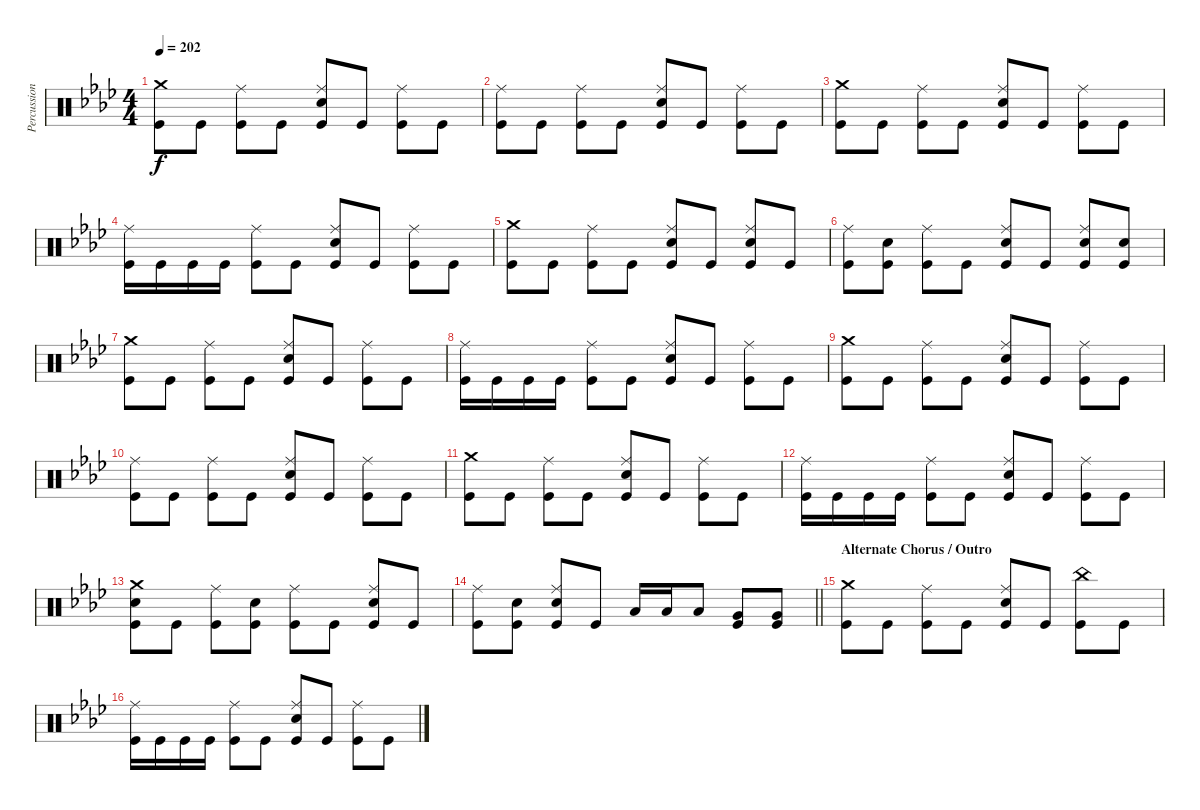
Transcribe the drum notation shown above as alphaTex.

\track ("Percussion" "Percussion") {instrument percussion}
\staff {score}
\articulation defaults
\ts (4 4)
\tempo 202
\clef neutral
\ks ab
("Crash medium (hit)" "Kick (hit)").8{dy f} "Kick (hit)".8 ("Ride (middle)" "Kick (hit)").8 "Kick (hit)".8 ("Ride (middle)" "Electric Snare (hit)" "Kick (hit)").8 "Kick (hit)".8 ("Ride (middle)" "Kick (hit)").8 "Kick (hit)".8 |
("Ride (middle)" "Kick (hit)").8 "Kick (hit)".8 ("Ride (middle)" "Kick (hit)").8 "Kick (hit)".8 ("Ride (middle)" "Electric Snare (hit)" "Kick (hit)").8 "Kick (hit)".8 ("Ride (middle)" "Kick (hit)").8 "Kick (hit)".8 |
("Crash medium (hit)" "Kick (hit)").8 "Kick (hit)".8 ("Ride (middle)" "Kick (hit)").8 "Kick (hit)".8 ("Ride (middle)" "Electric Snare (hit)" "Kick (hit)").8 "Kick (hit)".8 ("Ride (middle)" "Kick (hit)").8 "Kick (hit)".8 |
("Ride (middle)" "Kick (hit)").16 "Kick (hit)".16 "Kick (hit)".16 "Kick (hit)".16 ("Ride (middle)" "Kick (hit)").8 "Kick (hit)".8 ("Ride (middle)" "Electric Snare (hit)" "Kick (hit)").8 "Kick (hit)".8 ("Ride (middle)" "Kick (hit)").8 "Kick (hit)".8 |
("Crash medium (hit)" "Kick (hit)").8 "Kick (hit)".8 ("Ride (middle)" "Kick (hit)").8 "Kick (hit)".8 ("Ride (middle)" "Electric Snare (hit)" "Kick (hit)").8 "Kick (hit)".8 ("Ride (middle)" "Electric Snare (hit)" "Kick (hit)").8 "Kick (hit)".8 |
("Ride (middle)" "Kick (hit)").8 ("Electric Snare (hit)" "Kick (hit)").8 ("Ride (middle)" "Kick (hit)").8 "Kick (hit)".8 ("Ride (middle)" "Electric Snare (hit)" "Kick (hit)").8 "Kick (hit)".8 ("Ride (middle)" "Electric Snare (hit)" "Kick (hit)").8 ("Electric Snare (hit)" "Kick (hit)").8 |
("Crash medium (hit)" "Kick (hit)").8 "Kick (hit)".8 ("Ride (middle)" "Kick (hit)").8 "Kick (hit)".8 ("Ride (middle)" "Electric Snare (hit)" "Kick (hit)").8 "Kick (hit)".8 ("Ride (middle)" "Kick (hit)").8 "Kick (hit)".8 |
("Ride (middle)" "Kick (hit)").16 "Kick (hit)".16 "Kick (hit)".16 "Kick (hit)".16 ("Ride (middle)" "Kick (hit)").8 "Kick (hit)".8 ("Ride (middle)" "Electric Snare (hit)" "Kick (hit)").8 "Kick (hit)".8 ("Ride (middle)" "Kick (hit)").8 "Kick (hit)".8 |
("Crash medium (hit)" "Kick (hit)").8 "Kick (hit)".8 ("Ride (middle)" "Kick (hit)").8 "Kick (hit)".8 ("Ride (middle)" "Electric Snare (hit)" "Kick (hit)").8 "Kick (hit)".8 ("Ride (middle)" "Kick (hit)").8 "Kick (hit)".8 |
("Ride (middle)" "Kick (hit)").8 "Kick (hit)".8 ("Ride (middle)" "Kick (hit)").8 "Kick (hit)".8 ("Ride (middle)" "Electric Snare (hit)" "Kick (hit)").8 "Kick (hit)".8 ("Ride (middle)" "Kick (hit)").8 "Kick (hit)".8 |
("Crash medium (hit)" "Kick (hit)").8 "Kick (hit)".8 ("Ride (middle)" "Kick (hit)").8 "Kick (hit)".8 ("Ride (middle)" "Electric Snare (hit)" "Kick (hit)").8 "Kick (hit)".8 ("Ride (middle)" "Kick (hit)").8 "Kick (hit)".8 |
("Ride (middle)" "Kick (hit)").16 "Kick (hit)".16 "Kick (hit)".16 "Kick (hit)".16 ("Ride (middle)" "Kick (hit)").8 "Kick (hit)".8 ("Ride (middle)" "Electric Snare (hit)" "Kick (hit)").8 "Kick (hit)".8 ("Ride (middle)" "Kick (hit)").8 "Kick (hit)".8 |
("Crash medium (hit)" "Electric Snare (hit)" "Kick (hit)").8 "Kick (hit)".8 ("Ride (middle)" "Kick (hit)").8 ("Electric Snare (hit)" "Kick (hit)").8 ("Ride (middle)" "Kick (hit)").8 "Kick (hit)".8 ("Ride (middle)" "Electric Snare (hit)" "Kick (hit)").8 "Kick (hit)".8 |
\barLineRight lightlight
("Ride (middle)" "Kick (hit)").8 ("Electric Snare (hit)" "Kick (hit)").8 ("Ride (middle)" "Electric Snare (hit)" "Kick (hit)").8 "Kick (hit)".8 "Low Tom (hit)".16 "Low Tom (hit)".16 "Low Tom (hit)".8 ("Very Low Tom (hit)" "Kick (hit)").8 ("Very Low Tom (hit)" "Kick (hit)").8 |
\section ("" "Alternate Chorus / Outro")
("Crash medium (hit)" "Kick (hit)").8 "Kick (hit)".8 ("Ride (middle)" "Kick (hit)").8 "Kick (hit)".8 ("Ride (middle)" "Electric Snare (hit)" "Kick (hit)").8 "Kick (hit)".8 ("China (hit)" "Kick (hit)").8 "Kick (hit)".8 |
("Ride (middle)" "Kick (hit)").16 "Kick (hit)".16 "Kick (hit)".16 "Kick (hit)".16 ("Ride (middle)" "Kick (hit)").8 "Kick (hit)".8 ("Ride (middle)" "Electric Snare (hit)" "Kick (hit)").8 "Kick (hit)".8 ("Ride (middle)" "Kick (hit)").8 "Kick (hit)".8
